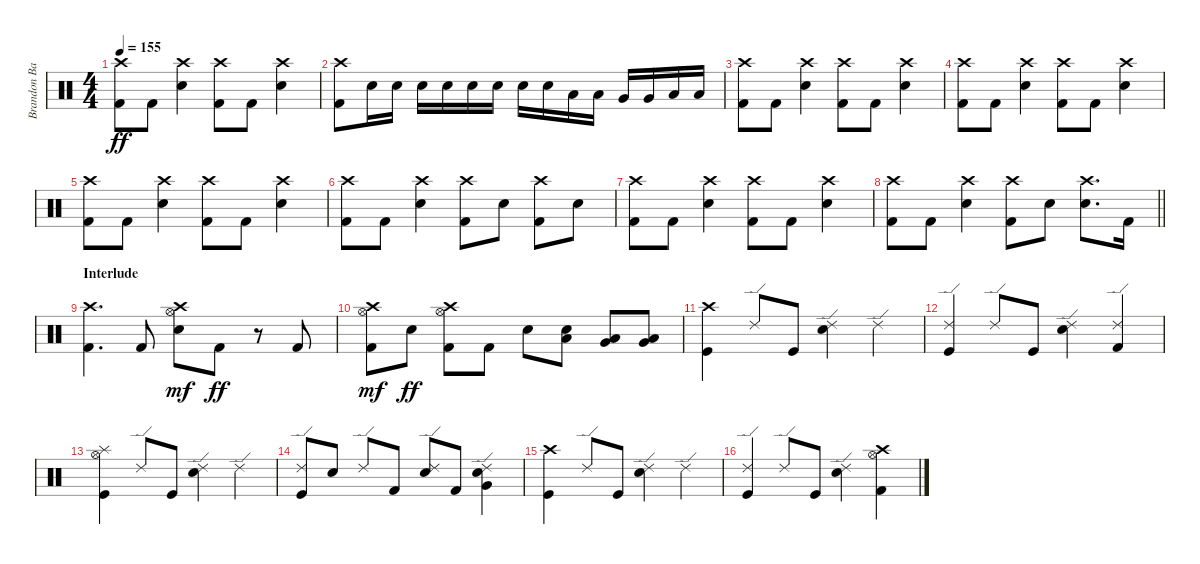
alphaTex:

\track ("Brandon Barnes - Drums" "Brandon Ba") {instrument percussion}
\staff {score}
\articulation defaults
\ts (4 4)
\tempo 155
\clef neutral
\ks c
("Crash high (hit)" "Kick (hit) 2").8{dy ff} "Kick (hit) 2".8 ("Snare (hit) 2" "Crash high (hit)").4 ("Crash high (hit)" "Kick (hit) 2").8 "Kick (hit) 2".8 ("Snare (hit) 2" "Crash high (hit)").4 |
("Crash high (hit)" "Kick (hit) 2").8 "Snare (hit) 2".16 "Snare (hit) 2".16 "Snare (hit) 2".16 "Snare (hit) 2".16 "Snare (hit) 2".16 "Snare (hit) 2".16 "Snare (hit) 2".16 "Snare (hit) 2".16 "Low Tom (hit)".16 "Low Tom (hit)".16 "Very Low Tom (hit)".16 "Very Low Tom (hit)".16 "Low Floor Tom (hit)".16 "Low Floor Tom (hit)".16 |
("Crash high (hit)" "Kick (hit) 2").8 "Kick (hit) 2".8 ("Snare (hit) 2" "Crash high (hit)").4 ("Crash high (hit)" "Kick (hit) 2").8 "Kick (hit) 2".8 ("Snare (hit) 2" "Crash high (hit)").4 |
("Crash high (hit)" "Kick (hit) 2").8 "Kick (hit) 2".8 ("Snare (hit) 2" "Crash high (hit)").4 ("Crash high (hit)" "Kick (hit) 2").8 "Kick (hit) 2".8 ("Snare (hit) 2" "Crash high (hit)").4 |
("Crash high (hit)" "Kick (hit) 2").8 "Kick (hit) 2".8 ("Snare (hit) 2" "Crash high (hit)").4 ("Crash high (hit)" "Kick (hit) 2").8 "Kick (hit) 2".8 ("Snare (hit) 2" "Crash high (hit)").4 |
("Crash high (hit)" "Kick (hit) 2").8 "Kick (hit) 2".8 ("Snare (hit) 2" "Crash high (hit)").4 ("Crash high (hit)" "Kick (hit) 2").8 "Snare (hit) 2".8 ("Crash high (hit)" "Kick (hit) 2").8 "Snare (hit) 2".8 |
("Crash high (hit)" "Kick (hit) 2").8 "Kick (hit) 2".8 ("Snare (hit) 2" "Crash high (hit)").4 ("Crash high (hit)" "Kick (hit) 2").8 "Kick (hit) 2".8 ("Snare (hit) 2" "Crash high (hit)").4 |
\barLineRight lightlight
("Crash high (hit)" "Kick (hit) 2").8 "Kick (hit) 2".8 ("Snare (hit) 2" "Crash high (hit)").4 ("Crash high (hit)" "Kick (hit) 2").8 "Snare (hit) 2".8 ("Snare (hit) 2" "Crash high (hit)").8{d} "Kick (hit) 2".16 |
\section ("" "Interlude")
("Crash high (hit)" "Kick (hit) 2").4{d} "Kick (hit) 2".8 ("Snare (hit) 2" "Crash high (hit)" "Hi-Hat (open)").8{dy mf} "Kick (hit) 2".8{dy ff} r.8 "Kick (hit) 2".8 |
("Kick (hit) 2" "Hi-Hat (open)" "Crash high (hit)").8{dy mf} "Snare (hit) 2".8{dy ff} ("Kick (hit) 2" "Hi-Hat (open)" "Crash high (hit)").8 "Kick (hit) 2".8 "Snare (hit) 2".8 ("Low Tom (hit)" "Snare (hit) 2").8 ("Low Tom (hit)" "Very Low Tom (hit)").8 ("Very Low Tom (hit)" "Low Floor Tom (hit)").8 |
("Kick (hit)" "Crash high (hit)").4 "Ride (edge) 2".8 "Kick (hit)".8 ("Snare (hit) 2" "Ride (edge) 2").4 "Ride (edge) 2".4 |
("Kick (hit)" "Ride (edge) 2").4 "Ride (edge) 2".8 "Kick (hit)".8 ("Snare (hit) 2" "Ride (edge) 2").4 ("Ride (edge) 2" "Kick (hit) 2").4 |
("Kick (hit)" "Splash (hit)" "Hi-Hat (open)").4 "Ride (edge) 2".8 "Kick (hit)".8 ("Snare (hit) 2" "Ride (edge) 2").4 "Ride (edge) 2".4 |
("Kick (hit)" "Ride (edge) 2").8 "Snare (hit) 2".8 "Ride (edge) 2".8 "Kick (hit) 2".8 ("Snare (hit) 2" "Ride (edge) 2").8 "Kick (hit) 2".8 ("Snare (hit) 2" "Very Low Tom (hit)" "Ride (edge) 2").4 |
("Kick (hit)" "Crash high (hit)").4 "Ride (edge) 2".8 "Kick (hit)".8 ("Snare (hit) 2" "Ride (edge) 2").4 "Ride (edge) 2".4 |
("Kick (hit)" "Ride (edge) 2").4 "Ride (edge) 2".8 "Kick (hit)".8 ("Snare (hit) 2" "Ride (edge) 2").4 ("Hi-Hat (open)" "Kick (hit) 2" "Crash high (hit)").4
